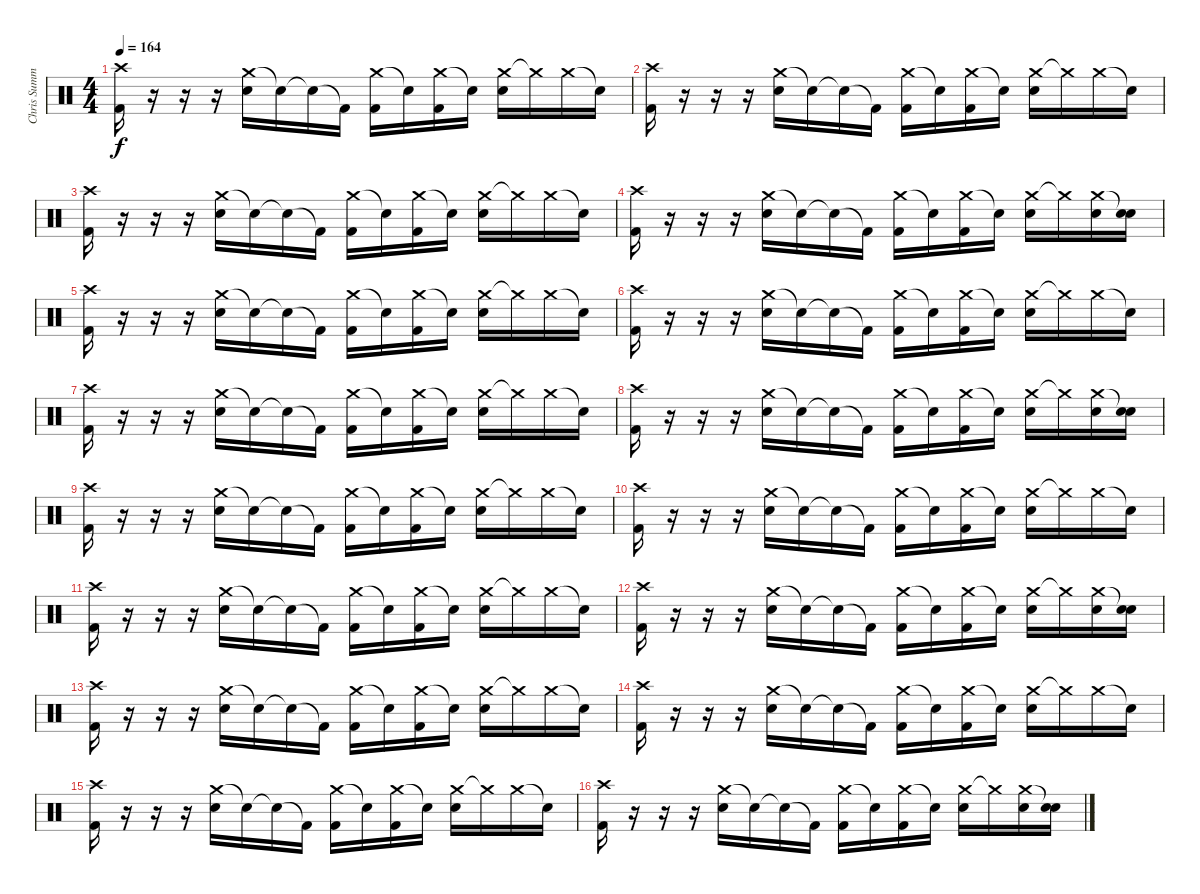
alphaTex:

\track ("Chris Summers" "Chris Summ") {instrument percussion}
\staff {score}
\articulation defaults
\ts (4 4)
\tempo 164
\clef neutral
\ks c
("Crash high (hit)" "Kick (hit) 2").16{dy f} r.16 r.16 r.16 ("Crash medium (hit)" "Snare (hit) 2").16 "Snare (hit)"{t}.16 "Snare (hit)"{t}.16 "Kick (hit) 2"{t}.16 ("Crash medium (hit)" "Kick (hit) 2").16 "Snare (hit)"{t}.16 ("Crash medium (hit)" "Kick (hit) 2").16 "Snare (hit)"{t}.16 ("Crash medium (hit)" "Snare (hit) 2").16 "Crash medium (hit)"{t}.16 "Crash medium (hit)".16 "Snare (hit)"{t}.16 |
("Crash high (hit)" "Kick (hit) 2").16 r.16 r.16 r.16 ("Crash medium (hit)" "Snare (hit) 2").16 "Snare (hit)"{t}.16 "Snare (hit)"{t}.16 "Kick (hit) 2"{t}.16 ("Crash medium (hit)" "Kick (hit) 2").16 "Snare (hit)"{t}.16 ("Crash medium (hit)" "Kick (hit) 2").16 "Snare (hit)"{t}.16 ("Crash medium (hit)" "Snare (hit) 2").16 "Crash medium (hit)"{t}.16 "Crash medium (hit)".16 "Snare (hit)"{t}.16 |
("Crash high (hit)" "Kick (hit) 2").16 r.16 r.16 r.16 ("Crash medium (hit)" "Snare (hit) 2").16 "Snare (hit)"{t}.16 "Snare (hit)"{t}.16 "Kick (hit) 2"{t}.16 ("Crash medium (hit)" "Kick (hit) 2").16 "Snare (hit)"{t}.16 ("Crash medium (hit)" "Kick (hit) 2").16 "Snare (hit)"{t}.16 ("Crash medium (hit)" "Snare (hit) 2").16 "Crash medium (hit)"{t}.16 "Crash medium (hit)".16 "Snare (hit)"{t}.16 |
("Crash high (hit)" "Kick (hit) 2").16 r.16 r.16 r.16 ("Crash medium (hit)" "Snare (hit) 2").16 "Snare (hit)"{t}.16 "Snare (hit)"{t}.16 "Kick (hit) 2"{t}.16 ("Crash medium (hit)" "Kick (hit) 2").16 "Snare (hit)"{t}.16 ("Crash medium (hit)" "Kick (hit) 2").16 "Snare (hit)"{t}.16 ("Crash medium (hit)" "Snare (hit) 2").16 "Crash medium (hit)"{t}.16 ("Crash medium (hit)" "Snare (hit) 2").16 ("Snare (hit)"{t} "Snare (hit) 2").16 |
("Crash high (hit)" "Kick (hit) 2").16 r.16 r.16 r.16 ("Crash medium (hit)" "Snare (hit) 2").16 "Snare (hit)"{t}.16 "Snare (hit)"{t}.16 "Kick (hit) 2"{t}.16 ("Crash medium (hit)" "Kick (hit) 2").16 "Snare (hit)"{t}.16 ("Crash medium (hit)" "Kick (hit) 2").16 "Snare (hit)"{t}.16 ("Crash medium (hit)" "Snare (hit) 2").16 "Crash medium (hit)"{t}.16 "Crash medium (hit)".16 "Snare (hit)"{t}.16 |
("Crash high (hit)" "Kick (hit) 2").16 r.16 r.16 r.16 ("Crash medium (hit)" "Snare (hit) 2").16 "Snare (hit)"{t}.16 "Snare (hit)"{t}.16 "Kick (hit) 2"{t}.16 ("Crash medium (hit)" "Kick (hit) 2").16 "Snare (hit)"{t}.16 ("Crash medium (hit)" "Kick (hit) 2").16 "Snare (hit)"{t}.16 ("Crash medium (hit)" "Snare (hit) 2").16 "Crash medium (hit)"{t}.16 "Crash medium (hit)".16 "Snare (hit)"{t}.16 |
("Crash high (hit)" "Kick (hit) 2").16 r.16 r.16 r.16 ("Crash medium (hit)" "Snare (hit) 2").16 "Snare (hit)"{t}.16 "Snare (hit)"{t}.16 "Kick (hit) 2"{t}.16 ("Crash medium (hit)" "Kick (hit) 2").16 "Snare (hit)"{t}.16 ("Crash medium (hit)" "Kick (hit) 2").16 "Snare (hit)"{t}.16 ("Crash medium (hit)" "Snare (hit) 2").16 "Crash medium (hit)"{t}.16 "Crash medium (hit)".16 "Snare (hit)"{t}.16 |
("Crash high (hit)" "Kick (hit) 2").16 r.16 r.16 r.16 ("Crash medium (hit)" "Snare (hit) 2").16 "Snare (hit)"{t}.16 "Snare (hit)"{t}.16 "Kick (hit) 2"{t}.16 ("Crash medium (hit)" "Kick (hit) 2").16 "Snare (hit)"{t}.16 ("Crash medium (hit)" "Kick (hit) 2").16 "Snare (hit)"{t}.16 ("Crash medium (hit)" "Snare (hit) 2").16 "Crash medium (hit)"{t}.16 ("Crash medium (hit)" "Snare (hit) 2").16 ("Snare (hit)"{t} "Snare (hit) 2").16 |
("Crash high (hit)" "Kick (hit) 2").16 r.16 r.16 r.16 ("Crash medium (hit)" "Snare (hit) 2").16 "Snare (hit)"{t}.16 "Snare (hit)"{t}.16 "Kick (hit) 2"{t}.16 ("Crash medium (hit)" "Kick (hit) 2").16 "Snare (hit)"{t}.16 ("Crash medium (hit)" "Kick (hit) 2").16 "Snare (hit)"{t}.16 ("Crash medium (hit)" "Snare (hit) 2").16 "Crash medium (hit)"{t}.16 "Crash medium (hit)".16 "Snare (hit)"{t}.16 |
("Crash high (hit)" "Kick (hit) 2").16 r.16 r.16 r.16 ("Crash medium (hit)" "Snare (hit) 2").16 "Snare (hit)"{t}.16 "Snare (hit)"{t}.16 "Kick (hit) 2"{t}.16 ("Crash medium (hit)" "Kick (hit) 2").16 "Snare (hit)"{t}.16 ("Crash medium (hit)" "Kick (hit) 2").16 "Snare (hit)"{t}.16 ("Crash medium (hit)" "Snare (hit) 2").16 "Crash medium (hit)"{t}.16 "Crash medium (hit)".16 "Snare (hit)"{t}.16 |
("Crash high (hit)" "Kick (hit) 2").16 r.16 r.16 r.16 ("Crash medium (hit)" "Snare (hit) 2").16 "Snare (hit)"{t}.16 "Snare (hit)"{t}.16 "Kick (hit) 2"{t}.16 ("Crash medium (hit)" "Kick (hit) 2").16 "Snare (hit)"{t}.16 ("Crash medium (hit)" "Kick (hit) 2").16 "Snare (hit)"{t}.16 ("Crash medium (hit)" "Snare (hit) 2").16 "Crash medium (hit)"{t}.16 "Crash medium (hit)".16 "Snare (hit)"{t}.16 |
("Crash high (hit)" "Kick (hit) 2").16 r.16 r.16 r.16 ("Crash medium (hit)" "Snare (hit) 2").16 "Snare (hit)"{t}.16 "Snare (hit)"{t}.16 "Kick (hit) 2"{t}.16 ("Crash medium (hit)" "Kick (hit) 2").16 "Snare (hit)"{t}.16 ("Crash medium (hit)" "Kick (hit) 2").16 "Snare (hit)"{t}.16 ("Crash medium (hit)" "Snare (hit) 2").16 "Crash medium (hit)"{t}.16 ("Crash medium (hit)" "Snare (hit) 2").16 ("Snare (hit)"{t} "Snare (hit) 2").16 |
("Crash high (hit)" "Kick (hit) 2").16 r.16 r.16 r.16 ("Crash medium (hit)" "Snare (hit) 2").16 "Snare (hit)"{t}.16 "Snare (hit)"{t}.16 "Kick (hit) 2"{t}.16 ("Crash medium (hit)" "Kick (hit) 2").16 "Snare (hit)"{t}.16 ("Crash medium (hit)" "Kick (hit) 2").16 "Snare (hit)"{t}.16 ("Crash medium (hit)" "Snare (hit) 2").16 "Crash medium (hit)"{t}.16 "Crash medium (hit)".16 "Snare (hit)"{t}.16 |
("Crash high (hit)" "Kick (hit) 2").16 r.16 r.16 r.16 ("Crash medium (hit)" "Snare (hit) 2").16 "Snare (hit)"{t}.16 "Snare (hit)"{t}.16 "Kick (hit) 2"{t}.16 ("Crash medium (hit)" "Kick (hit) 2").16 "Snare (hit)"{t}.16 ("Crash medium (hit)" "Kick (hit) 2").16 "Snare (hit)"{t}.16 ("Crash medium (hit)" "Snare (hit) 2").16 "Crash medium (hit)"{t}.16 "Crash medium (hit)".16 "Snare (hit)"{t}.16 |
("Crash high (hit)" "Kick (hit) 2").16 r.16 r.16 r.16 ("Crash medium (hit)" "Snare (hit) 2").16 "Snare (hit)"{t}.16 "Snare (hit)"{t}.16 "Kick (hit) 2"{t}.16 ("Crash medium (hit)" "Kick (hit) 2").16 "Snare (hit)"{t}.16 ("Crash medium (hit)" "Kick (hit) 2").16 "Snare (hit)"{t}.16 ("Crash medium (hit)" "Snare (hit) 2").16 "Crash medium (hit)"{t}.16 "Crash medium (hit)".16 "Snare (hit)"{t}.16 |
("Crash high (hit)" "Kick (hit) 2").16 r.16 r.16 r.16 ("Crash medium (hit)" "Snare (hit) 2").16 "Snare (hit)"{t}.16 "Snare (hit)"{t}.16 "Kick (hit) 2"{t}.16 ("Crash medium (hit)" "Kick (hit) 2").16 "Snare (hit)"{t}.16 ("Crash medium (hit)" "Kick (hit) 2").16 "Snare (hit)"{t}.16 ("Crash medium (hit)" "Snare (hit) 2").16 "Crash medium (hit)"{t}.16 ("Crash medium (hit)" "Snare (hit) 2").16 ("Snare (hit)"{t} "Snare (hit) 2").16
